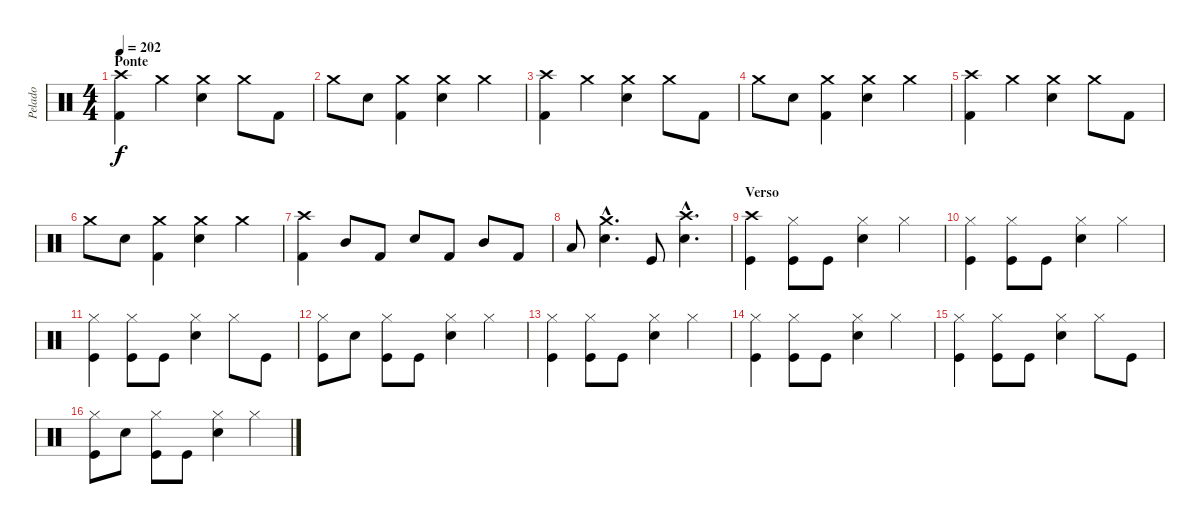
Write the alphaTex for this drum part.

\track ("Pelado" "Pelado") {instrument percussion}
\staff {score}
\articulation defaults
\ts (4 4)
\section ("" "Ponte")
\tempo 202
\clef neutral
\ks c
("Crash high (hit)" "Kick (hit) 2").4{dy f} "Crash medium (hit)".4 ("Crash medium (hit)" "Electric Snare (hit)").4 "Crash medium (hit)".8 "Kick (hit) 2".8 |
"Crash medium (hit)".8 "Electric Snare (hit)".8 ("Crash medium (hit)" "Kick (hit) 2").4 ("Crash medium (hit)" "Electric Snare (hit)").4 "Crash medium (hit)".4 |
("Crash high (hit)" "Kick (hit) 2").4 "Crash medium (hit)".4 ("Crash medium (hit)" "Electric Snare (hit)").4 "Crash medium (hit)".8 "Kick (hit) 2".8 |
"Crash medium (hit)".8 "Electric Snare (hit)".8 ("Crash medium (hit)" "Kick (hit) 2").4 ("Crash medium (hit)" "Electric Snare (hit)").4 "Crash medium (hit)".4 |
("Crash high (hit)" "Kick (hit) 2").4 "Crash medium (hit)".4 ("Crash medium (hit)" "Electric Snare (hit)").4 "Crash medium (hit)".8 "Kick (hit) 2".8 |
"Crash medium (hit)".8 "Electric Snare (hit)".8 ("Crash medium (hit)" "Kick (hit) 2").4 ("Crash medium (hit)" "Electric Snare (hit)").4 "Crash medium (hit)".4 |
("Crash high (hit)" "Kick (hit) 2").4 "Mid Tom (hit)".8 "Kick (hit) 2".8 "Electric Snare (hit)".8 "Kick (hit) 2".8 "Mid Tom (hit)".8 "Kick (hit) 2".8 |
"Low Tom (hit)".8 ("Crash medium (hit)"{hac} "Electric Snare (hit)"{hac}).4{d} "Kick (hit)".8 ("Crash high (hit)"{hac} "Electric Snare (hit)"{hac}).4{d} |
\section ("" "Verso")
("Crash high (hit)" "Kick (hit)").4 ("Hi-Hat (closed)" "Kick (hit)").8 "Kick (hit)".8 ("Hi-Hat (closed)" "Electric Snare (hit)").4 "Hi-Hat (closed)".4 |
("Hi-Hat (closed)" "Kick (hit)").4 ("Hi-Hat (closed)" "Kick (hit)").8 "Kick (hit)".8 ("Hi-Hat (closed)" "Electric Snare (hit)").4 "Hi-Hat (closed)".4 |
("Hi-Hat (closed)" "Kick (hit)").4 ("Hi-Hat (closed)" "Kick (hit)").8 "Kick (hit)".8 ("Hi-Hat (closed)" "Electric Snare (hit)").4 "Hi-Hat (closed)".8 "Kick (hit)".8 |
("Hi-Hat (closed)" "Kick (hit)").8 "Electric Snare (hit)".8 ("Hi-Hat (closed)" "Kick (hit)").8 "Kick (hit)".8 ("Hi-Hat (closed)" "Electric Snare (hit)").4 "Hi-Hat (closed)".4 |
("Hi-Hat (closed)" "Kick (hit)").4 ("Hi-Hat (closed)" "Kick (hit)").8 "Kick (hit)".8 ("Hi-Hat (closed)" "Electric Snare (hit)").4 "Hi-Hat (closed)".4 |
("Hi-Hat (closed)" "Kick (hit)").4 ("Hi-Hat (closed)" "Kick (hit)").8 "Kick (hit)".8 ("Hi-Hat (closed)" "Electric Snare (hit)").4 "Hi-Hat (closed)".4 |
("Hi-Hat (closed)" "Kick (hit)").4 ("Hi-Hat (closed)" "Kick (hit)").8 "Kick (hit)".8 ("Hi-Hat (closed)" "Electric Snare (hit)").4 "Hi-Hat (closed)".8 "Kick (hit)".8 |
("Hi-Hat (closed)" "Kick (hit)").8 "Electric Snare (hit)".8 ("Hi-Hat (closed)" "Kick (hit)").8 "Kick (hit)".8 ("Hi-Hat (closed)" "Electric Snare (hit)").4 "Hi-Hat (closed)".4
